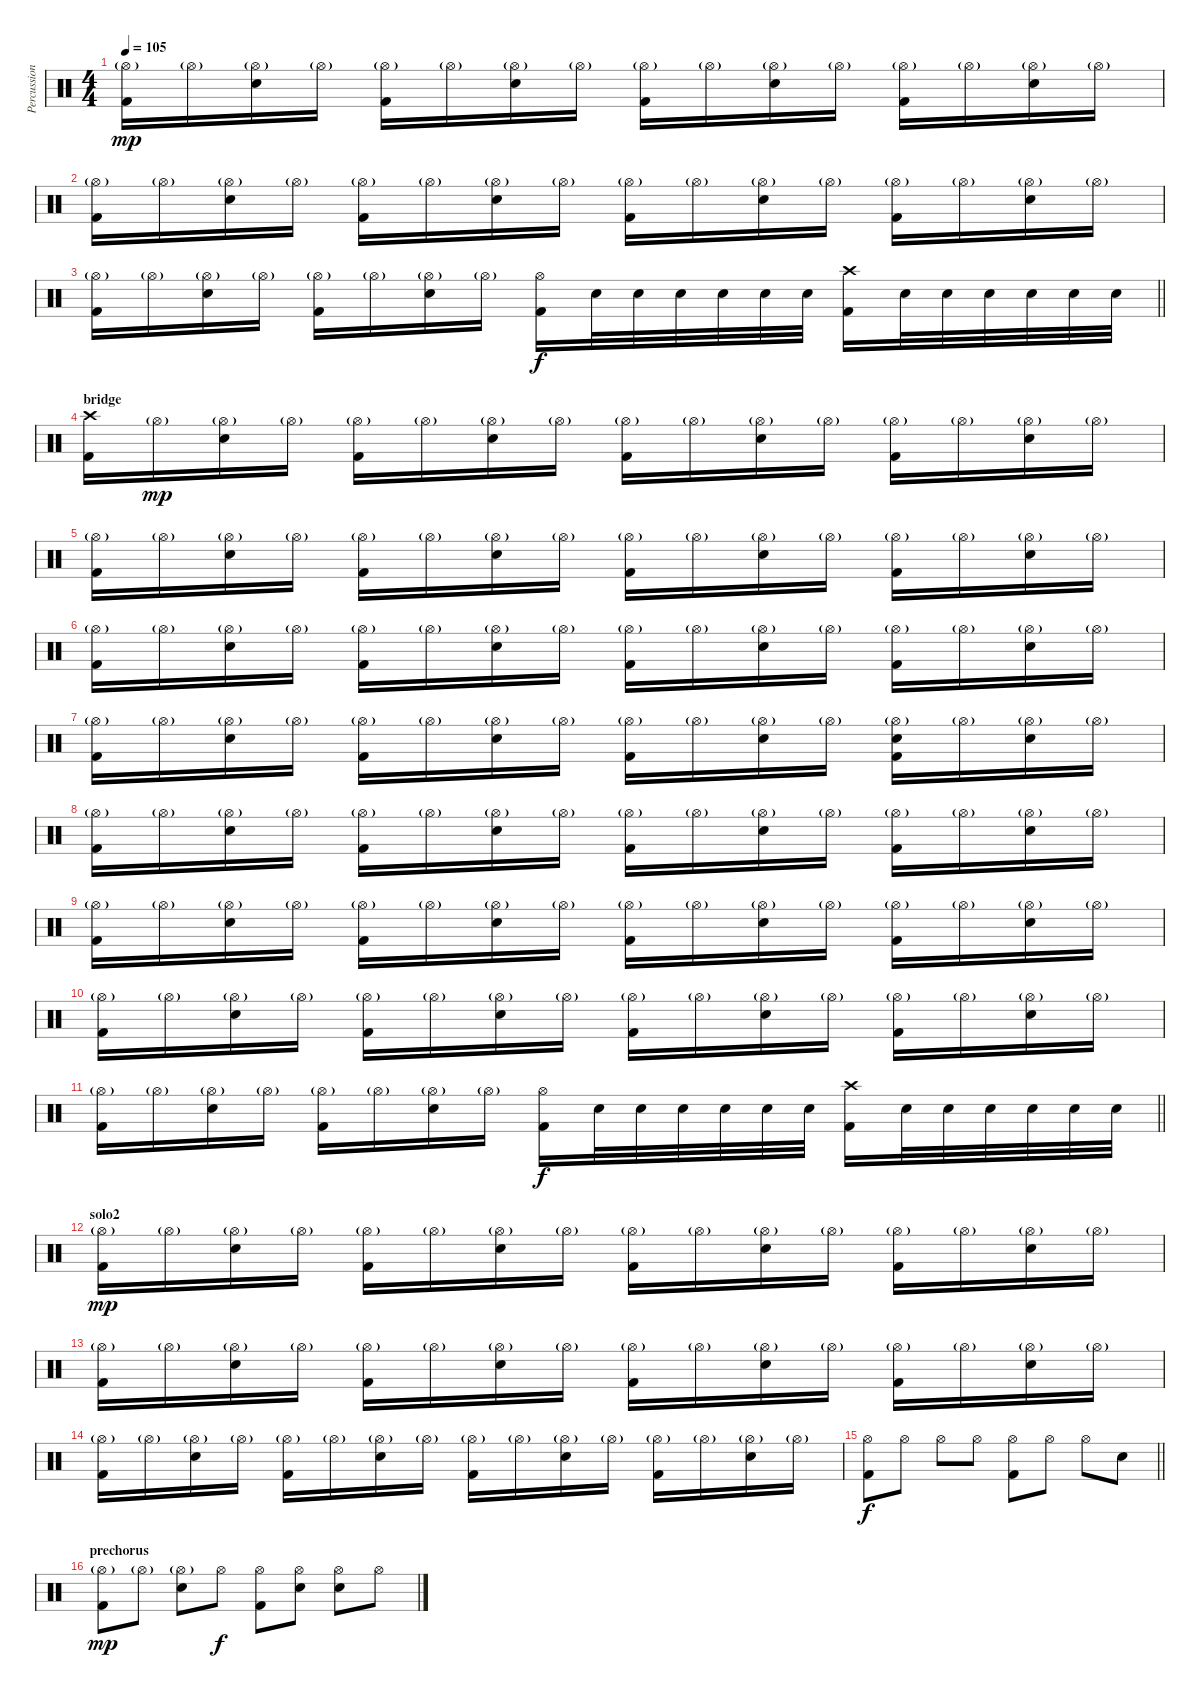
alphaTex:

\track ("Percussion" "Percussion") {instrument percussion}
\staff {score}
\articulation defaults
\ts (4 4)
\tempo 105
\clef neutral
\ks c
("Hi-Hat (open)"{g} "Kick (hit) 2").16{dy mp} "Hi-Hat (open)"{g}.16 ("Hi-Hat (open)"{g} "Electric Snare (hit)").16 "Hi-Hat (open)"{g}.16 ("Hi-Hat (open)"{g} "Kick (hit) 2").16 "Hi-Hat (open)"{g}.16 ("Hi-Hat (open)"{g} "Electric Snare (hit)").16 "Hi-Hat (open)"{g}.16 ("Hi-Hat (open)"{g} "Kick (hit) 2").16 "Hi-Hat (open)"{g}.16 ("Hi-Hat (open)"{g} "Electric Snare (hit)").16 "Hi-Hat (open)"{g}.16 ("Hi-Hat (open)"{g} "Kick (hit) 2").16 "Hi-Hat (open)"{g}.16 ("Hi-Hat (open)"{g} "Electric Snare (hit)").16 "Hi-Hat (open)"{g}.16 |
("Hi-Hat (open)"{g} "Kick (hit) 2").16 "Hi-Hat (open)"{g}.16 ("Hi-Hat (open)"{g} "Electric Snare (hit)").16 "Hi-Hat (open)"{g}.16 ("Hi-Hat (open)"{g} "Kick (hit) 2").16 "Hi-Hat (open)"{g}.16 ("Hi-Hat (open)"{g} "Electric Snare (hit)").16 "Hi-Hat (open)"{g}.16 ("Hi-Hat (open)"{g} "Kick (hit) 2").16 "Hi-Hat (open)"{g}.16 ("Hi-Hat (open)"{g} "Electric Snare (hit)").16 "Hi-Hat (open)"{g}.16 ("Hi-Hat (open)"{g} "Kick (hit) 2").16 "Hi-Hat (open)"{g}.16 ("Hi-Hat (open)"{g} "Electric Snare (hit)").16 "Hi-Hat (open)"{g}.16 |
\barLineRight lightlight
("Hi-Hat (open)"{g} "Kick (hit) 2").16 "Hi-Hat (open)"{g}.16 ("Hi-Hat (open)"{g} "Electric Snare (hit)").16 "Hi-Hat (open)"{g}.16 ("Hi-Hat (open)"{g} "Kick (hit) 2").16 "Hi-Hat (open)"{g}.16 ("Hi-Hat (open)"{g} "Electric Snare (hit)").16 "Hi-Hat (open)"{g}.16 ("Hi-Hat (open)" "Kick (hit) 2").16{dy f} "Electric Snare (hit)".32 "Electric Snare (hit)".32 "Electric Snare (hit)".32 "Electric Snare (hit)".32 "Electric Snare (hit)".32 "Electric Snare (hit)".32 ("Crash high (hit)" "Kick (hit) 2").16 "Electric Snare (hit)".32 "Electric Snare (hit)".32 "Electric Snare (hit)".32 "Electric Snare (hit)".32 "Electric Snare (hit)".32 "Electric Snare (hit)".32 |
\section ("" "bridge")
("Crash high (hit)" "Kick (hit) 2").16 "Hi-Hat (open)"{g}.16{dy mp} ("Hi-Hat (open)"{g} "Electric Snare (hit)").16 "Hi-Hat (open)"{g}.16 ("Hi-Hat (open)"{g} "Kick (hit) 2").16 "Hi-Hat (open)"{g}.16 ("Hi-Hat (open)"{g} "Electric Snare (hit)").16 "Hi-Hat (open)"{g}.16 ("Hi-Hat (open)"{g} "Kick (hit) 2").16 "Hi-Hat (open)"{g}.16 ("Hi-Hat (open)"{g} "Electric Snare (hit)").16 "Hi-Hat (open)"{g}.16 ("Hi-Hat (open)"{g} "Kick (hit) 2").16 "Hi-Hat (open)"{g}.16 ("Hi-Hat (open)"{g} "Electric Snare (hit)").16 "Hi-Hat (open)"{g}.16 |
("Hi-Hat (open)"{g} "Kick (hit) 2").16 "Hi-Hat (open)"{g}.16 ("Hi-Hat (open)"{g} "Electric Snare (hit)").16 "Hi-Hat (open)"{g}.16 ("Hi-Hat (open)"{g} "Kick (hit) 2").16 "Hi-Hat (open)"{g}.16 ("Hi-Hat (open)"{g} "Electric Snare (hit)").16 "Hi-Hat (open)"{g}.16 ("Hi-Hat (open)"{g} "Kick (hit) 2").16 "Hi-Hat (open)"{g}.16 ("Hi-Hat (open)"{g} "Electric Snare (hit)").16 "Hi-Hat (open)"{g}.16 ("Hi-Hat (open)"{g} "Kick (hit) 2").16 "Hi-Hat (open)"{g}.16 ("Hi-Hat (open)"{g} "Electric Snare (hit)").16 "Hi-Hat (open)"{g}.16 |
("Hi-Hat (open)"{g} "Kick (hit) 2").16 "Hi-Hat (open)"{g}.16 ("Hi-Hat (open)"{g} "Electric Snare (hit)").16 "Hi-Hat (open)"{g}.16 ("Hi-Hat (open)"{g} "Kick (hit) 2").16 "Hi-Hat (open)"{g}.16 ("Hi-Hat (open)"{g} "Electric Snare (hit)").16 "Hi-Hat (open)"{g}.16 ("Hi-Hat (open)"{g} "Kick (hit) 2").16 "Hi-Hat (open)"{g}.16 ("Hi-Hat (open)"{g} "Electric Snare (hit)").16 "Hi-Hat (open)"{g}.16 ("Hi-Hat (open)"{g} "Kick (hit) 2").16 "Hi-Hat (open)"{g}.16 ("Hi-Hat (open)"{g} "Electric Snare (hit)").16 "Hi-Hat (open)"{g}.16 |
("Hi-Hat (open)"{g} "Kick (hit) 2").16 "Hi-Hat (open)"{g}.16 ("Hi-Hat (open)"{g} "Electric Snare (hit)").16 "Hi-Hat (open)"{g}.16 ("Hi-Hat (open)"{g} "Kick (hit) 2").16 "Hi-Hat (open)"{g}.16 ("Hi-Hat (open)"{g} "Electric Snare (hit)").16 "Hi-Hat (open)"{g}.16 ("Hi-Hat (open)"{g} "Kick (hit) 2").16 "Hi-Hat (open)"{g}.16 ("Hi-Hat (open)"{g} "Electric Snare (hit)").16 "Hi-Hat (open)"{g}.16 ("Hi-Hat (open)"{g} "Electric Snare (hit)" "Kick (hit) 2").16 "Hi-Hat (open)"{g}.16 ("Hi-Hat (open)"{g} "Electric Snare (hit)").16 "Hi-Hat (open)"{g}.16 |
("Hi-Hat (open)"{g} "Kick (hit) 2").16 "Hi-Hat (open)"{g}.16 ("Hi-Hat (open)"{g} "Electric Snare (hit)").16 "Hi-Hat (open)"{g}.16 ("Hi-Hat (open)"{g} "Kick (hit) 2").16 "Hi-Hat (open)"{g}.16 ("Hi-Hat (open)"{g} "Electric Snare (hit)").16 "Hi-Hat (open)"{g}.16 ("Hi-Hat (open)"{g} "Kick (hit) 2").16 "Hi-Hat (open)"{g}.16 ("Hi-Hat (open)"{g} "Electric Snare (hit)").16 "Hi-Hat (open)"{g}.16 ("Hi-Hat (open)"{g} "Kick (hit) 2").16 "Hi-Hat (open)"{g}.16 ("Hi-Hat (open)"{g} "Electric Snare (hit)").16 "Hi-Hat (open)"{g}.16 |
("Hi-Hat (open)"{g} "Kick (hit) 2").16 "Hi-Hat (open)"{g}.16 ("Hi-Hat (open)"{g} "Electric Snare (hit)").16 "Hi-Hat (open)"{g}.16 ("Hi-Hat (open)"{g} "Kick (hit) 2").16 "Hi-Hat (open)"{g}.16 ("Hi-Hat (open)"{g} "Electric Snare (hit)").16 "Hi-Hat (open)"{g}.16 ("Hi-Hat (open)"{g} "Kick (hit) 2").16 "Hi-Hat (open)"{g}.16 ("Hi-Hat (open)"{g} "Electric Snare (hit)").16 "Hi-Hat (open)"{g}.16 ("Hi-Hat (open)"{g} "Kick (hit) 2").16 "Hi-Hat (open)"{g}.16 ("Hi-Hat (open)"{g} "Electric Snare (hit)").16 "Hi-Hat (open)"{g}.16 |
("Hi-Hat (open)"{g} "Kick (hit) 2").16 "Hi-Hat (open)"{g}.16 ("Hi-Hat (open)"{g} "Electric Snare (hit)").16 "Hi-Hat (open)"{g}.16 ("Hi-Hat (open)"{g} "Kick (hit) 2").16 "Hi-Hat (open)"{g}.16 ("Hi-Hat (open)"{g} "Electric Snare (hit)").16 "Hi-Hat (open)"{g}.16 ("Hi-Hat (open)"{g} "Kick (hit) 2").16 "Hi-Hat (open)"{g}.16 ("Hi-Hat (open)"{g} "Electric Snare (hit)").16 "Hi-Hat (open)"{g}.16 ("Hi-Hat (open)"{g} "Kick (hit) 2").16 "Hi-Hat (open)"{g}.16 ("Hi-Hat (open)"{g} "Electric Snare (hit)").16 "Hi-Hat (open)"{g}.16 |
\barLineRight lightlight
("Hi-Hat (open)"{g} "Kick (hit) 2").16 "Hi-Hat (open)"{g}.16 ("Hi-Hat (open)"{g} "Electric Snare (hit)").16 "Hi-Hat (open)"{g}.16 ("Hi-Hat (open)"{g} "Kick (hit) 2").16 "Hi-Hat (open)"{g}.16 ("Hi-Hat (open)"{g} "Electric Snare (hit)").16 "Hi-Hat (open)"{g}.16 ("Hi-Hat (open)" "Kick (hit) 2").16{dy f} "Electric Snare (hit)".32 "Electric Snare (hit)".32 "Electric Snare (hit)".32 "Electric Snare (hit)".32 "Electric Snare (hit)".32 "Electric Snare (hit)".32 ("Crash high (hit)" "Kick (hit) 2").16 "Electric Snare (hit)".32 "Electric Snare (hit)".32 "Electric Snare (hit)".32 "Electric Snare (hit)".32 "Electric Snare (hit)".32 "Electric Snare (hit)".32 |
\section ("" "solo2")
("Hi-Hat (open)"{g} "Kick (hit) 2").16{dy mp} "Hi-Hat (open)"{g}.16 ("Hi-Hat (open)"{g} "Electric Snare (hit)").16 "Hi-Hat (open)"{g}.16 ("Hi-Hat (open)"{g} "Kick (hit) 2").16 "Hi-Hat (open)"{g}.16 ("Hi-Hat (open)"{g} "Electric Snare (hit)").16 "Hi-Hat (open)"{g}.16 ("Hi-Hat (open)"{g} "Kick (hit) 2").16 "Hi-Hat (open)"{g}.16 ("Hi-Hat (open)"{g} "Electric Snare (hit)").16 "Hi-Hat (open)"{g}.16 ("Hi-Hat (open)"{g} "Kick (hit) 2").16 "Hi-Hat (open)"{g}.16 ("Hi-Hat (open)"{g} "Electric Snare (hit)").16 "Hi-Hat (open)"{g}.16 |
("Hi-Hat (open)"{g} "Kick (hit) 2").16 "Hi-Hat (open)"{g}.16 ("Hi-Hat (open)"{g} "Electric Snare (hit)").16 "Hi-Hat (open)"{g}.16 ("Hi-Hat (open)"{g} "Kick (hit) 2").16 "Hi-Hat (open)"{g}.16 ("Hi-Hat (open)"{g} "Electric Snare (hit)").16 "Hi-Hat (open)"{g}.16 ("Hi-Hat (open)"{g} "Kick (hit) 2").16 "Hi-Hat (open)"{g}.16 ("Hi-Hat (open)"{g} "Electric Snare (hit)").16 "Hi-Hat (open)"{g}.16 ("Hi-Hat (open)"{g} "Kick (hit) 2").16 "Hi-Hat (open)"{g}.16 ("Hi-Hat (open)"{g} "Electric Snare (hit)").16 "Hi-Hat (open)"{g}.16 |
("Hi-Hat (open)"{g} "Kick (hit) 2").16 "Hi-Hat (open)"{g}.16 ("Hi-Hat (open)"{g} "Electric Snare (hit)").16 "Hi-Hat (open)"{g}.16 ("Hi-Hat (open)"{g} "Kick (hit) 2").16 "Hi-Hat (open)"{g}.16 ("Hi-Hat (open)"{g} "Electric Snare (hit)").16 "Hi-Hat (open)"{g}.16 ("Hi-Hat (open)"{g} "Kick (hit) 2").16 "Hi-Hat (open)"{g}.16 ("Hi-Hat (open)"{g} "Electric Snare (hit)").16 "Hi-Hat (open)"{g}.16 ("Hi-Hat (open)"{g} "Kick (hit) 2").16 "Hi-Hat (open)"{g}.16 ("Hi-Hat (open)"{g} "Electric Snare (hit)").16 "Hi-Hat (open)"{g}.16 |
\barLineRight lightlight
("Hi-Hat (open)" "Kick (hit) 2").8{dy f} "Hi-Hat (open)".8 "Hi-Hat (open)".8 "Hi-Hat (open)".8 ("Hi-Hat (open)" "Kick (hit) 2").8 "Hi-Hat (open)".8 "Hi-Hat (open)".8 "Electric Snare (hit)".8 |
\section ("" "prechorus")
("Hi-Hat (open)"{g} "Kick (hit) 2").8{dy mp} "Hi-Hat (open)"{g}.8 ("Hi-Hat (open)"{g} "Electric Snare (hit)").8 "Hi-Hat (open)".8{dy f} ("Hi-Hat (open)" "Kick (hit) 2").8 ("Hi-Hat (open)" "Electric Snare (hit)").8 ("Hi-Hat (open)" "Electric Snare (hit)").8 "Hi-Hat (open)".8
